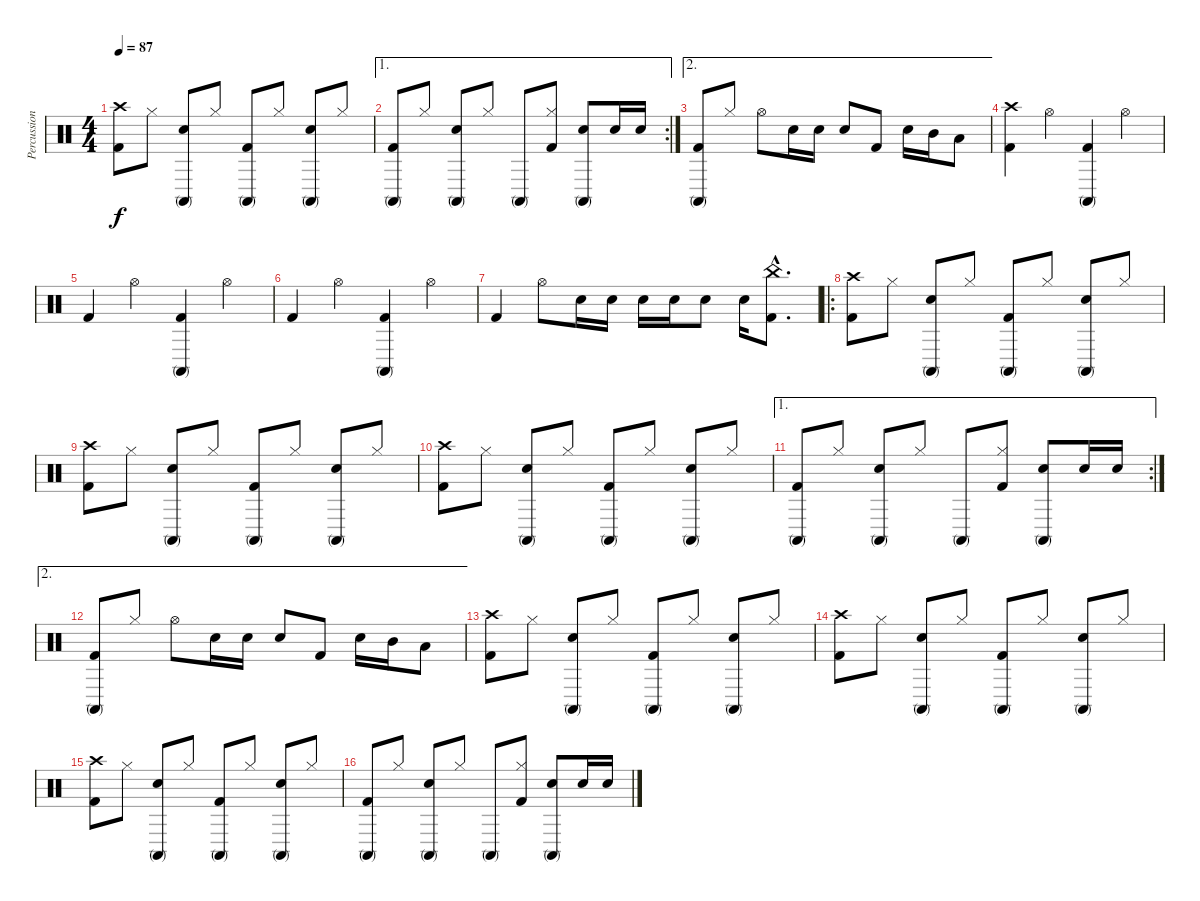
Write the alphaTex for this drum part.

\track ("Percussions" "Percussion") {instrument percussion}
\staff {score}
\articulation defaults
\ts (4 4)
\tempo 87
\clef neutral
\ks c
("Crash high (hit)" "Kick (hit) 2").8{dy f} "Hi-Hat (closed)".8 ("Conga high (mute)" "Snare (hit) 2").8 "Hi-Hat (closed)".8 ("Conga high (mute)" "Kick (hit) 2").8 "Hi-Hat (closed)".8 ("Conga high (mute)" "Snare (hit) 2").8 "Hi-Hat (closed)".8 |
\ae 1
\rc 2
("Conga high (mute)" "Kick (hit) 2").8 "Hi-Hat (closed)".8 ("Conga high (mute)" "Snare (hit) 2").8 "Hi-Hat (closed)".8 "Conga high (mute)".8 ("Hi-Hat (closed)" "Kick (hit) 2").8 ("Conga high (mute)" "Snare (hit) 2").8 "Snare (hit) 2".16 "Snare (hit) 2".16 |
\ae 2
("Conga high (mute)" "Kick (hit) 2").8 "Hi-Hat (closed)".8 "Hi-Hat (open)".8 "Snare (hit) 2".16 "Snare (hit) 2".16 "Snare (hit) 2".8 "Kick (hit) 2".8 "Snare (hit) 2".16 "Mid Tom (hit)".16 "Low Tom (hit)".8 |
("Crash high (hit)" "Kick (hit) 2").4 "Hi-Hat (open)".4 ("Conga high (mute)" "Kick (hit) 2").4 "Hi-Hat (open)".4 |
"Kick (hit) 2".4 "Hi-Hat (open)".4 ("Conga high (mute)" "Kick (hit) 2").4 "Hi-Hat (open)".4 |
"Kick (hit) 2".4 "Hi-Hat (open)".4 ("Conga high (mute)" "Kick (hit) 2").4 "Hi-Hat (open)".4 |
"Kick (hit) 2".4 "Hi-Hat (open)".8 "Snare (hit) 2".16 "Snare (hit) 2".16 "Snare (hit) 2".16 "Snare (hit) 2".16 "Snare (hit) 2".8 "Snare (hit) 2".16 ("China (hit)"{hac} "Kick (hit) 2"{hac}).8{d} |
\ro
("Crash high (hit)" "Kick (hit) 2").8 "Hi-Hat (closed)".8 ("Conga high (mute)" "Snare (hit) 2").8 "Hi-Hat (closed)".8 ("Conga high (mute)" "Kick (hit) 2").8 "Hi-Hat (closed)".8 ("Conga high (mute)" "Snare (hit) 2").8 "Hi-Hat (closed)".8 |
("Crash high (hit)" "Kick (hit) 2").8 "Hi-Hat (closed)".8 ("Conga high (mute)" "Snare (hit) 2").8 "Hi-Hat (closed)".8 ("Conga high (mute)" "Kick (hit) 2").8 "Hi-Hat (closed)".8 ("Conga high (mute)" "Snare (hit) 2").8 "Hi-Hat (closed)".8 |
("Crash high (hit)" "Kick (hit) 2").8 "Hi-Hat (closed)".8 ("Conga high (mute)" "Snare (hit) 2").8 "Hi-Hat (closed)".8 ("Conga high (mute)" "Kick (hit) 2").8 "Hi-Hat (closed)".8 ("Conga high (mute)" "Snare (hit) 2").8 "Hi-Hat (closed)".8 |
\ae 1
\rc 2
("Conga high (mute)" "Kick (hit) 2").8 "Hi-Hat (closed)".8 ("Conga high (mute)" "Snare (hit) 2").8 "Hi-Hat (closed)".8 "Conga high (mute)".8 ("Hi-Hat (closed)" "Kick (hit) 2").8 ("Conga high (mute)" "Snare (hit) 2").8 "Snare (hit) 2".16 "Snare (hit) 2".16 |
\ae 2
("Conga high (mute)" "Kick (hit) 2").8 "Hi-Hat (closed)".8 "Hi-Hat (open)".8 "Snare (hit) 2".16 "Snare (hit) 2".16 "Snare (hit) 2".8 "Kick (hit) 2".8 "Snare (hit) 2".16 "Mid Tom (hit)".16 "Low Tom (hit)".8 |
("Crash high (hit)" "Kick (hit) 2").8 "Hi-Hat (closed)".8 ("Conga high (mute)" "Snare (hit) 2").8 "Hi-Hat (closed)".8 ("Conga high (mute)" "Kick (hit) 2").8 "Hi-Hat (closed)".8 ("Conga high (mute)" "Snare (hit) 2").8 "Hi-Hat (closed)".8 |
("Crash high (hit)" "Kick (hit) 2").8 "Hi-Hat (closed)".8 ("Conga high (mute)" "Snare (hit) 2").8 "Hi-Hat (closed)".8 ("Conga high (mute)" "Kick (hit) 2").8 "Hi-Hat (closed)".8 ("Conga high (mute)" "Snare (hit) 2").8 "Hi-Hat (closed)".8 |
("Crash high (hit)" "Kick (hit) 2").8 "Hi-Hat (closed)".8 ("Conga high (mute)" "Snare (hit) 2").8 "Hi-Hat (closed)".8 ("Conga high (mute)" "Kick (hit) 2").8 "Hi-Hat (closed)".8 ("Conga high (mute)" "Snare (hit) 2").8 "Hi-Hat (closed)".8 |
("Conga high (mute)" "Kick (hit) 2").8 "Hi-Hat (closed)".8 ("Conga high (mute)" "Snare (hit) 2").8 "Hi-Hat (closed)".8 "Conga high (mute)".8 ("Hi-Hat (closed)" "Kick (hit) 2").8 ("Conga high (mute)" "Snare (hit) 2").8 "Snare (hit) 2".16 "Snare (hit) 2".16
